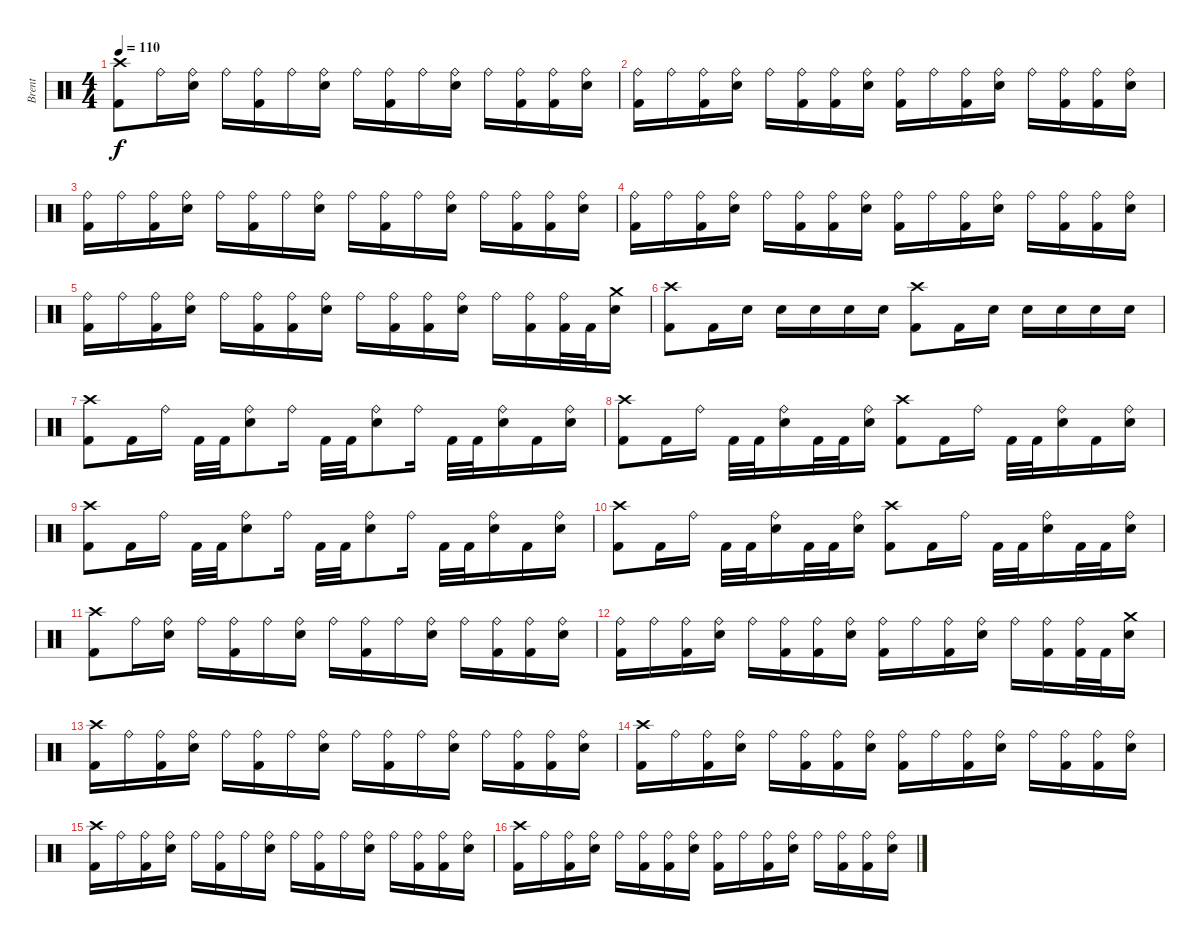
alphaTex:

\track ("Brent" "Brent") {instrument percussion}
\staff {score}
\articulation defaults
\ts (4 4)
\tempo 110
\clef neutral
\ks c
("Crash high (hit)" "Kick (hit) 2").8{dy f} "Ride (bell)".16 ("Ride (bell)" "Snare (hit) 2").16 "Ride (bell)".16 ("Ride (bell)" "Kick (hit) 2").16 "Ride (bell)".16 ("Ride (bell)" "Snare (hit) 2").16 "Ride (bell)".16 ("Ride (bell)" "Kick (hit) 2").16 "Ride (bell)".16 ("Ride (bell)" "Snare (hit) 2").16 "Ride (bell)".16 ("Ride (bell)" "Kick (hit) 2").16 ("Ride (bell)" "Kick (hit) 2").16 ("Ride (bell)" "Snare (hit) 2").16 |
("Ride (bell)" "Kick (hit) 2").16 "Ride (bell)".16 ("Ride (bell)" "Kick (hit) 2").16 ("Ride (bell)" "Snare (hit) 2").16 "Ride (bell)".16 ("Ride (bell)" "Kick (hit) 2").16 ("Ride (bell)" "Kick (hit) 2").16 ("Ride (bell)" "Snare (hit) 2").16 ("Ride (bell)" "Kick (hit) 2").16 "Ride (bell)".16 ("Ride (bell)" "Kick (hit) 2").16 ("Ride (bell)" "Snare (hit) 2").16 "Ride (bell)".16 ("Ride (bell)" "Kick (hit) 2").16 ("Ride (bell)" "Kick (hit) 2").16 ("Ride (bell)" "Snare (hit) 2").16 |
("Ride (bell)" "Kick (hit) 2").16 "Ride (bell)".16 ("Ride (bell)" "Kick (hit) 2").16 ("Ride (bell)" "Snare (hit) 2").16 "Ride (bell)".16 ("Ride (bell)" "Kick (hit) 2").16 "Ride (bell)".16 ("Ride (bell)" "Snare (hit) 2").16 "Ride (bell)".16 ("Ride (bell)" "Kick (hit) 2").16 "Ride (bell)".16 ("Ride (bell)" "Snare (hit) 2").16 "Ride (bell)".16 ("Ride (bell)" "Kick (hit) 2").16 ("Ride (bell)" "Kick (hit) 2").16 ("Ride (bell)" "Snare (hit) 2").16 |
("Ride (bell)" "Kick (hit) 2").16 "Ride (bell)".16 ("Ride (bell)" "Kick (hit) 2").16 ("Ride (bell)" "Snare (hit) 2").16 "Ride (bell)".16 ("Ride (bell)" "Kick (hit) 2").16 ("Ride (bell)" "Kick (hit) 2").16 ("Ride (bell)" "Snare (hit) 2").16 ("Ride (bell)" "Kick (hit) 2").16 "Ride (bell)".16 ("Ride (bell)" "Kick (hit) 2").16 ("Ride (bell)" "Snare (hit) 2").16 "Ride (bell)".16 ("Ride (bell)" "Kick (hit) 2").16 ("Ride (bell)" "Kick (hit) 2").16 ("Ride (bell)" "Snare (hit) 2").16 |
("Ride (bell)" "Kick (hit) 2").16 "Ride (bell)".16 ("Ride (bell)" "Kick (hit) 2").16 ("Ride (bell)" "Snare (hit) 2").16 "Ride (bell)".16 ("Ride (bell)" "Kick (hit) 2").16 ("Ride (bell)" "Kick (hit) 2").16 ("Ride (bell)" "Snare (hit) 2").16 "Ride (bell)".16 ("Ride (bell)" "Kick (hit) 2").16 ("Ride (bell)" "Kick (hit) 2").16 ("Ride (bell)" "Snare (hit) 2").16 "Ride (bell)".16 ("Ride (bell)" "Kick (hit) 2").16 ("Ride (bell)" "Kick (hit) 2").32 "Kick (hit) 2".32 ("Crash medium (hit)" "Snare (hit) 2").16 |
("Crash high (hit)" "Kick (hit) 2").8 "Kick (hit) 2".16 "Snare (hit) 2".16 "Snare (hit) 2".16 "Snare (hit) 2".16 "Snare (hit) 2".16 "Snare (hit) 2".16 ("Crash high (hit)" "Kick (hit) 2").8 "Kick (hit) 2".16 "Snare (hit) 2".16 "Snare (hit) 2".16 "Snare (hit) 2".16 "Snare (hit) 2".16 "Snare (hit) 2".16 |
("Crash high (hit)" "Kick (hit) 2").8 "Kick (hit) 2".16 "Ride (bell)".16 "Kick (hit) 2".32 "Kick (hit) 2".32 ("Ride (bell)" "Snare (hit) 2").8 "Ride (bell)".16 "Kick (hit) 2".32 "Kick (hit) 2".32 ("Ride (bell)" "Snare (hit) 2").8 "Ride (bell)".16 "Kick (hit) 2".32 "Kick (hit) 2".32 ("Ride (bell)" "Snare (hit) 2").16 "Kick (hit) 2".16 ("Ride (bell)" "Snare (hit) 2").16 |
("Crash high (hit)" "Kick (hit) 2").8 "Kick (hit) 2".16 "Ride (bell)".16 "Kick (hit) 2".32 "Kick (hit) 2".32 ("Ride (bell)" "Snare (hit) 2").16 "Kick (hit) 2".32 "Kick (hit) 2".32 ("Ride (bell)" "Snare (hit) 2").16 ("Crash high (hit)" "Kick (hit) 2").8 "Kick (hit) 2".16 "Ride (bell)".16 "Kick (hit) 2".32 "Kick (hit) 2".32 ("Ride (bell)" "Snare (hit) 2").16 "Kick (hit) 2".16 ("Ride (bell)" "Snare (hit) 2").16 |
("Crash high (hit)" "Kick (hit) 2").8 "Kick (hit) 2".16 "Ride (bell)".16 "Kick (hit) 2".32 "Kick (hit) 2".32 ("Ride (bell)" "Snare (hit) 2").8 "Ride (bell)".16 "Kick (hit) 2".32 "Kick (hit) 2".32 ("Ride (bell)" "Snare (hit) 2").8 "Ride (bell)".16 "Kick (hit) 2".32 "Kick (hit) 2".32 ("Ride (bell)" "Snare (hit) 2").16 "Kick (hit) 2".16 ("Ride (bell)" "Snare (hit) 2").16 |
("Crash high (hit)" "Kick (hit) 2").8 "Kick (hit) 2".16 "Ride (bell)".16 "Kick (hit) 2".32 "Kick (hit) 2".32 ("Ride (bell)" "Snare (hit) 2").16 "Kick (hit) 2".32 "Kick (hit) 2".32 ("Ride (bell)" "Snare (hit) 2").16 ("Crash high (hit)" "Kick (hit) 2").8 "Kick (hit) 2".16 "Ride (bell)".16 "Kick (hit) 2".32 "Kick (hit) 2".32 ("Ride (bell)" "Snare (hit) 2").16 "Kick (hit) 2".32 "Kick (hit) 2".32 ("Ride (bell)" "Snare (hit) 2").16 |
("Crash high (hit)" "Kick (hit) 2").8 "Ride (bell)".16 ("Ride (bell)" "Snare (hit) 2").16 "Ride (bell)".16 ("Ride (bell)" "Kick (hit) 2").16 "Ride (bell)".16 ("Ride (bell)" "Snare (hit) 2").16 "Ride (bell)".16 ("Ride (bell)" "Kick (hit) 2").16 "Ride (bell)".16 ("Ride (bell)" "Snare (hit) 2").16 "Ride (bell)".16 ("Ride (bell)" "Kick (hit) 2").16 ("Ride (bell)" "Kick (hit) 2").16 ("Ride (bell)" "Snare (hit) 2").16 |
("Ride (bell)" "Kick (hit) 2").16 "Ride (bell)".16 ("Ride (bell)" "Kick (hit) 2").16 ("Ride (bell)" "Snare (hit) 2").16 "Ride (bell)".16 ("Ride (bell)" "Kick (hit) 2").16 ("Ride (bell)" "Kick (hit) 2").16 ("Ride (bell)" "Snare (hit) 2").16 ("Ride (bell)" "Kick (hit) 2").16 "Ride (bell)".16 ("Ride (bell)" "Kick (hit) 2").16 ("Ride (bell)" "Snare (hit) 2").16 "Ride (bell)".16 ("Ride (bell)" "Kick (hit) 2").16 ("Ride (bell)" "Kick (hit) 2").32 "Kick (hit) 2".32 ("Crash medium (hit)" "Snare (hit) 2").16 |
("Crash high (hit)" "Kick (hit) 2").16 "Ride (bell)".16 ("Ride (bell)" "Kick (hit) 2").16 ("Ride (bell)" "Snare (hit) 2").16 "Ride (bell)".16 ("Ride (bell)" "Kick (hit) 2").16 "Ride (bell)".16 ("Ride (bell)" "Snare (hit) 2").16 "Ride (bell)".16 ("Ride (bell)" "Kick (hit) 2").16 "Ride (bell)".16 ("Ride (bell)" "Snare (hit) 2").16 "Ride (bell)".16 ("Ride (bell)" "Kick (hit) 2").16 ("Ride (bell)" "Kick (hit) 2").16 ("Ride (bell)" "Snare (hit) 2").16 |
("Crash high (hit)" "Kick (hit) 2").16 "Ride (bell)".16 ("Ride (bell)" "Kick (hit) 2").16 ("Ride (bell)" "Snare (hit) 2").16 "Ride (bell)".16 ("Ride (bell)" "Kick (hit) 2").16 ("Ride (bell)" "Kick (hit) 2").16 ("Ride (bell)" "Snare (hit) 2").16 ("Ride (bell)" "Kick (hit) 2").16 "Ride (bell)".16 ("Ride (bell)" "Kick (hit) 2").16 ("Ride (bell)" "Snare (hit) 2").16 "Ride (bell)".16 ("Ride (bell)" "Kick (hit) 2").16 ("Ride (bell)" "Kick (hit) 2").16 ("Ride (bell)" "Snare (hit) 2").16 |
("Crash high (hit)" "Kick (hit) 2").16 "Ride (bell)".16 ("Ride (bell)" "Kick (hit) 2").16 ("Ride (bell)" "Snare (hit) 2").16 "Ride (bell)".16 ("Ride (bell)" "Kick (hit) 2").16 "Ride (bell)".16 ("Ride (bell)" "Snare (hit) 2").16 "Ride (bell)".16 ("Ride (bell)" "Kick (hit) 2").16 "Ride (bell)".16 ("Ride (bell)" "Snare (hit) 2").16 "Ride (bell)".16 ("Ride (bell)" "Kick (hit) 2").16 ("Ride (bell)" "Kick (hit) 2").16 ("Ride (bell)" "Snare (hit) 2").16 |
("Crash high (hit)" "Kick (hit) 2").16 "Ride (bell)".16 ("Ride (bell)" "Kick (hit) 2").16 ("Ride (bell)" "Snare (hit) 2").16 "Ride (bell)".16 ("Ride (bell)" "Kick (hit) 2").16 ("Ride (bell)" "Kick (hit) 2").16 ("Ride (bell)" "Snare (hit) 2").16 ("Ride (bell)" "Kick (hit) 2").16 "Ride (bell)".16 ("Ride (bell)" "Kick (hit) 2").16 ("Ride (bell)" "Snare (hit) 2").16 "Ride (bell)".16 ("Ride (bell)" "Kick (hit) 2").16 ("Ride (bell)" "Kick (hit) 2").16 ("Ride (bell)" "Snare (hit) 2").16
